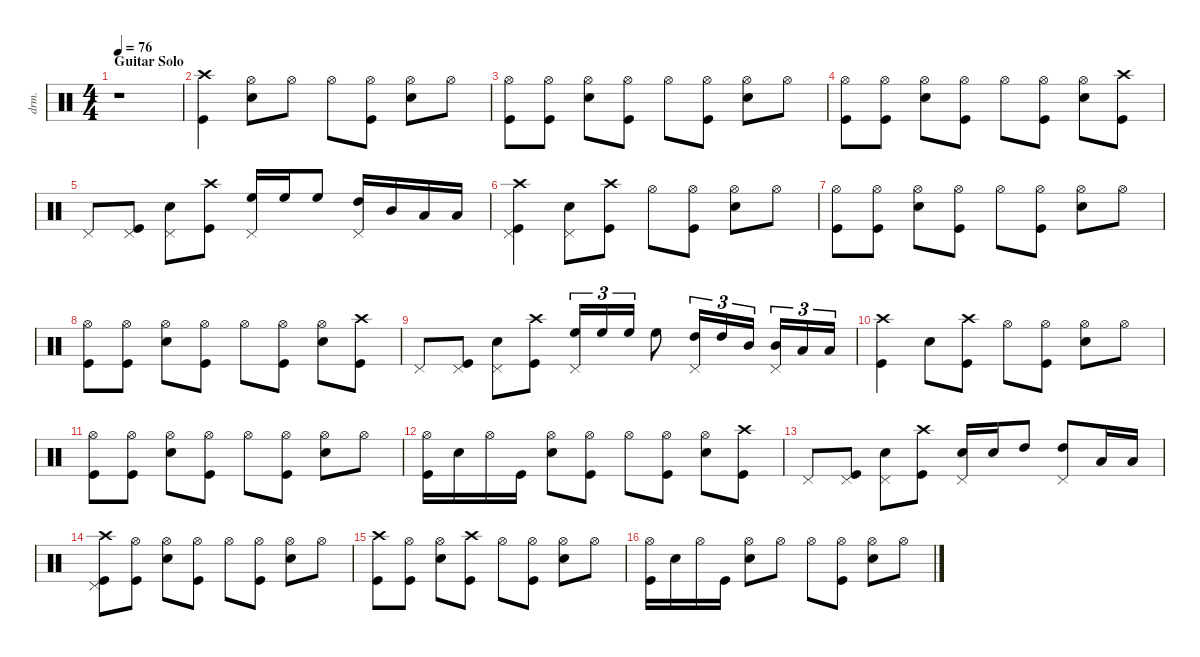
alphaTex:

\defaultSystemsLayout 4
\hideDynamics
\bracketExtendMode nobrackets
\track ("Percussion" "drm.") {instrument percussion}
\staff {score}
\articulation defaults
\ts (4 4)
\section ("" "Guitar Solo")
\tempo 76
\clef neutral
\ks c
r.1{dy ff} |
("Crash high (hit)" "Kick (hit)").4 ("Hi-Hat (open)" "Snare (hit) 2").8 "Hi-Hat (open)".8 "Hi-Hat (open)".8 ("Hi-Hat (open)" "Kick (hit)").8 ("Hi-Hat (open)" "Snare (hit) 2").8 "Hi-Hat (open)".8 |
("Hi-Hat (open)" "Kick (hit)").8 ("Hi-Hat (open)" "Kick (hit)").8 ("Hi-Hat (open)" "Snare (hit) 2").8 ("Hi-Hat (open)" "Kick (hit)").8 "Hi-Hat (open)".8 ("Hi-Hat (open)" "Kick (hit)").8 ("Hi-Hat (open)" "Snare (hit) 2").8 "Hi-Hat (open)".8 |
("Hi-Hat (open)" "Kick (hit)").8 ("Hi-Hat (open)" "Kick (hit)").8 ("Hi-Hat (open)" "Snare (hit) 2").8 ("Hi-Hat (open)" "Kick (hit)").8 "Hi-Hat (open)".8 ("Hi-Hat (open)" "Kick (hit)").8 ("Hi-Hat (open)" "Snare (hit) 2").8 ("Crash high (hit)" "Kick (hit)").8 |
"Pedal Hi-Hat (hit)".8 ("Pedal Hi-Hat (hit)" "Kick (hit)").8 ("Pedal Hi-Hat (hit)" "Snare (hit) 2").8 ("Crash high (hit)" "Kick (hit)").8 ("Pedal Hi-Hat (hit)" "High Floor Tom (hit)").16 "High Floor Tom (hit)".16 "High Floor Tom (hit)".8 ("Pedal Hi-Hat (hit)" "High Tom (hit)").16 "Mid Tom (hit)".16 "Low Tom (hit)".16 "Low Tom (hit)".16 |
("Pedal Hi-Hat (hit)" "Crash high (hit)" "Kick (hit)").4 ("Pedal Hi-Hat (hit)" "Snare (hit) 2").8 ("Crash high (hit)" "Kick (hit)").8 "Hi-Hat (open)".8 ("Hi-Hat (open)" "Kick (hit)").8 ("Hi-Hat (open)" "Snare (hit) 2").8 "Hi-Hat (open)".8 |
("Hi-Hat (open)" "Kick (hit)").8 ("Hi-Hat (open)" "Kick (hit)").8 ("Hi-Hat (open)" "Snare (hit) 2").8 ("Hi-Hat (open)" "Kick (hit)").8 "Hi-Hat (open)".8 ("Hi-Hat (open)" "Kick (hit)").8 ("Hi-Hat (open)" "Snare (hit) 2").8 "Hi-Hat (open)".8 |
("Hi-Hat (open)" "Kick (hit)").8 ("Hi-Hat (open)" "Kick (hit)").8 ("Hi-Hat (open)" "Snare (hit) 2").8 ("Hi-Hat (open)" "Kick (hit)").8 "Hi-Hat (open)".8 ("Hi-Hat (open)" "Kick (hit)").8 ("Hi-Hat (open)" "Snare (hit) 2").8 ("Crash high (hit)" "Kick (hit)").8 |
"Pedal Hi-Hat (hit)".8 ("Pedal Hi-Hat (hit)" "Kick (hit)").8 ("Pedal Hi-Hat (hit)" "Snare (hit) 2").8 ("Crash high (hit)" "Kick (hit)").8 ("Pedal Hi-Hat (hit)" "High Floor Tom (hit)").16{tu (3 2)} "High Floor Tom (hit)".16{tu (3 2)} "High Floor Tom (hit)".16{tu (3 2)} "High Floor Tom (hit)".8 ("Pedal Hi-Hat (hit)" "High Tom (hit)").16{tu (3 2)} "High Tom (hit)".16{tu (3 2)} "Mid Tom (hit)".16{tu (3 2)} ("Pedal Hi-Hat (hit)" "Mid Tom (hit)").16{tu (3 2)} "Low Tom (hit)".16{tu (3 2)} "Low Tom (hit)".16{tu (3 2)} |
("Crash high (hit)" "Kick (hit)").4 "Snare (hit) 2".8 ("Crash high (hit)" "Kick (hit)").8 "Hi-Hat (open)".8 ("Hi-Hat (open)" "Kick (hit)").8 ("Hi-Hat (open)" "Snare (hit) 2").8 "Hi-Hat (open)".8 |
("Hi-Hat (open)" "Kick (hit)").8 ("Hi-Hat (open)" "Kick (hit)").8 ("Hi-Hat (open)" "Snare (hit) 2").8 ("Hi-Hat (open)" "Kick (hit)").8 "Hi-Hat (open)".8 ("Hi-Hat (open)" "Kick (hit)").8 ("Hi-Hat (open)" "Snare (hit) 2").8 "Hi-Hat (open)".8 |
("Hi-Hat (open)" "Kick (hit)").16 "Snare (hit) 2".16 "Hi-Hat (open)".16 "Kick (hit)".16 ("Hi-Hat (open)" "Snare (hit) 2").8 ("Hi-Hat (open)" "Kick (hit)").8 "Hi-Hat (open)".8 ("Hi-Hat (open)" "Kick (hit)").8 ("Hi-Hat (open)" "Snare (hit) 2").8 ("Crash high (hit)" "Kick (hit)").8 |
"Pedal Hi-Hat (hit)".8 ("Pedal Hi-Hat (hit)" "Kick (hit)").8 ("Pedal Hi-Hat (hit)" "Snare (hit) 2").8 ("Crash high (hit)" "Kick (hit)").8 ("Pedal Hi-Hat (hit)" "Snare (hit) 2").16 "Snare (hit) 2".16 "High Tom (hit)".8 ("Pedal Hi-Hat (hit)" "High Tom (hit)").8 "Low Tom (hit)".16 "Low Tom (hit)".16 |
("Crash high (hit)" "Pedal Hi-Hat (hit)" "Kick (hit)").8 ("Hi-Hat (open)" "Kick (hit)").8 ("Hi-Hat (open)" "Snare (hit) 2").8 ("Hi-Hat (open)" "Kick (hit)").8 "Hi-Hat (open)".8 ("Hi-Hat (open)" "Kick (hit)").8 ("Hi-Hat (open)" "Snare (hit) 2").8 "Hi-Hat (open)".8 |
("Crash high (hit)" "Kick (hit)").8 ("Hi-Hat (open)" "Kick (hit)").8 ("Hi-Hat (open)" "Snare (hit) 2").8 ("Crash high (hit)" "Kick (hit)").8 "Hi-Hat (open)".8 ("Hi-Hat (open)" "Kick (hit)").8 ("Hi-Hat (open)" "Snare (hit) 2").8 "Hi-Hat (open)".8 |
("Hi-Hat (open)" "Kick (hit)").16 "Snare (hit) 2".16 "Hi-Hat (open)".16 "Kick (hit)".16 ("Hi-Hat (open)" "Snare (hit) 2").8 "Hi-Hat (open)".8 "Hi-Hat (open)".8 ("Hi-Hat (open)" "Kick (hit)").8 ("Hi-Hat (open)" "Snare (hit) 2").8 "Hi-Hat (open)".8
